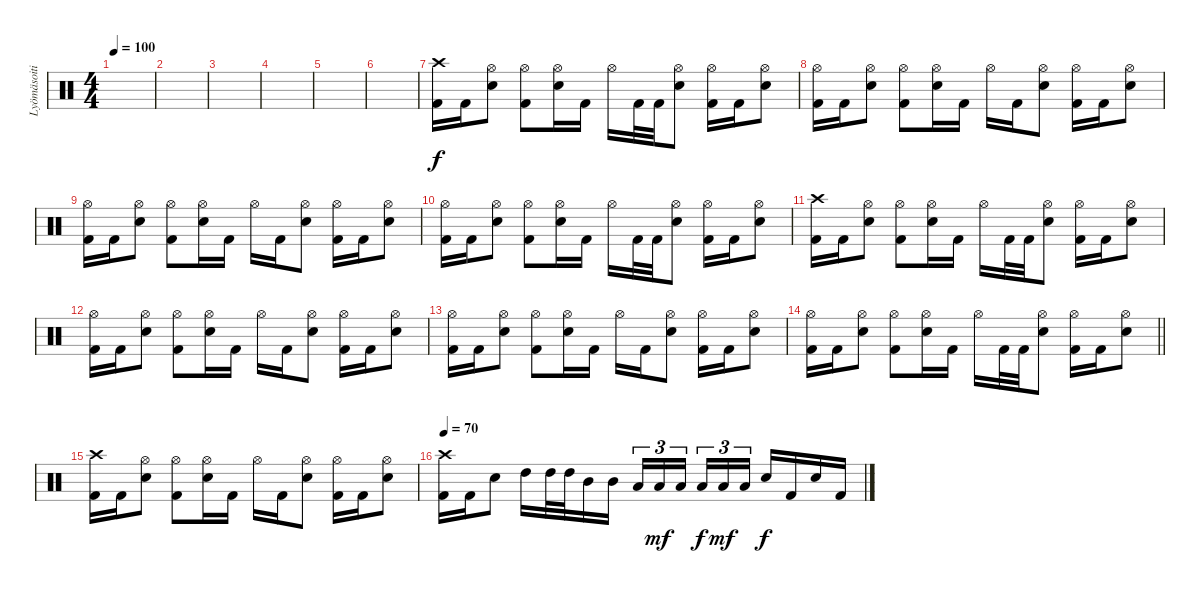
\track ("Lyömäsoitin" "Lyömäsoiti") {instrument percussion}
\staff {score}
\articulation defaults
\ts (4 4)
\tempo 100
\clef neutral
\ks c
|
|
|
|
|
|
("Crash high (hit)" "Kick (hit) 2").16 "Kick (hit) 2".16 ("Hi-Hat (open)" "Snare (hit) 2").8 ("Hi-Hat (open)" "Kick (hit) 2").8 ("Hi-Hat (open)" "Snare (hit) 2").16 "Kick (hit) 2".16 "Hi-Hat (open)".16 "Kick (hit) 2".32 "Kick (hit) 2".32 ("Hi-Hat (open)" "Snare (hit) 2").8 ("Hi-Hat (open)" "Kick (hit) 2").16 "Kick (hit) 2".16 ("Hi-Hat (open)" "Snare (hit) 2").8 |
("Hi-Hat (open)" "Kick (hit) 2").16 "Kick (hit) 2".16 ("Hi-Hat (open)" "Snare (hit) 2").8 ("Hi-Hat (open)" "Kick (hit) 2").8 ("Hi-Hat (open)" "Snare (hit) 2").16 "Kick (hit) 2".16 "Hi-Hat (open)".16 "Kick (hit) 2".16 ("Hi-Hat (open)" "Snare (hit) 2").8 ("Hi-Hat (open)" "Kick (hit) 2").16 "Kick (hit) 2".16 ("Hi-Hat (open)" "Snare (hit) 2").8 |
("Hi-Hat (open)" "Kick (hit) 2").16 "Kick (hit) 2".16 ("Hi-Hat (open)" "Snare (hit) 2").8 ("Hi-Hat (open)" "Kick (hit) 2").8 ("Hi-Hat (open)" "Snare (hit) 2").16 "Kick (hit) 2".16 "Hi-Hat (open)".16 "Kick (hit) 2".16 ("Hi-Hat (open)" "Snare (hit) 2").8 ("Hi-Hat (open)" "Kick (hit) 2").16 "Kick (hit) 2".16 ("Hi-Hat (open)" "Snare (hit) 2").8 |
("Hi-Hat (open)" "Kick (hit) 2").16 "Kick (hit) 2".16 ("Hi-Hat (open)" "Snare (hit) 2").8 ("Hi-Hat (open)" "Kick (hit) 2").8 ("Hi-Hat (open)" "Snare (hit) 2").16 "Kick (hit) 2".16 "Hi-Hat (open)".16 "Kick (hit) 2".32 "Kick (hit) 2".32 ("Hi-Hat (open)" "Snare (hit) 2").8 ("Hi-Hat (open)" "Kick (hit) 2").16 "Kick (hit) 2".16 ("Hi-Hat (open)" "Snare (hit) 2").8 |
("Crash high (hit)" "Kick (hit) 2").16 "Kick (hit) 2".16 ("Hi-Hat (open)" "Snare (hit) 2").8 ("Hi-Hat (open)" "Kick (hit) 2").8 ("Hi-Hat (open)" "Snare (hit) 2").16 "Kick (hit) 2".16 "Hi-Hat (open)".16 "Kick (hit) 2".32 "Kick (hit) 2".32 ("Hi-Hat (open)" "Snare (hit) 2").8 ("Hi-Hat (open)" "Kick (hit) 2").16 "Kick (hit) 2".16 ("Hi-Hat (open)" "Snare (hit) 2").8 |
("Hi-Hat (open)" "Kick (hit) 2").16 "Kick (hit) 2".16 ("Hi-Hat (open)" "Snare (hit) 2").8 ("Hi-Hat (open)" "Kick (hit) 2").8 ("Hi-Hat (open)" "Snare (hit) 2").16 "Kick (hit) 2".16 "Hi-Hat (open)".16 "Kick (hit) 2".16 ("Hi-Hat (open)" "Snare (hit) 2").8 ("Hi-Hat (open)" "Kick (hit) 2").16 "Kick (hit) 2".16 ("Hi-Hat (open)" "Snare (hit) 2").8 |
("Hi-Hat (open)" "Kick (hit) 2").16 "Kick (hit) 2".16 ("Hi-Hat (open)" "Snare (hit) 2").8 ("Hi-Hat (open)" "Kick (hit) 2").8 ("Hi-Hat (open)" "Snare (hit) 2").16 "Kick (hit) 2".16 "Hi-Hat (open)".16 "Kick (hit) 2".16 ("Hi-Hat (open)" "Snare (hit) 2").8 ("Hi-Hat (open)" "Kick (hit) 2").16 "Kick (hit) 2".16 ("Hi-Hat (open)" "Snare (hit) 2").8 |
\barLineRight lightlight
("Hi-Hat (open)" "Kick (hit) 2").16 "Kick (hit) 2".16 ("Hi-Hat (open)" "Snare (hit) 2").8 ("Hi-Hat (open)" "Kick (hit) 2").8 ("Hi-Hat (open)" "Snare (hit) 2").16 "Kick (hit) 2".16 "Hi-Hat (open)".16 "Kick (hit) 2".32 "Kick (hit) 2".32 ("Hi-Hat (open)" "Snare (hit) 2").8 ("Hi-Hat (open)" "Kick (hit) 2").16 "Kick (hit) 2".16 ("Hi-Hat (open)" "Snare (hit) 2").8 |
("Crash high (hit)" "Kick (hit) 2").16 "Kick (hit) 2".16 ("Hi-Hat (open)" "Snare (hit) 2").8 ("Hi-Hat (open)" "Kick (hit) 2").8 ("Hi-Hat (open)" "Snare (hit) 2").16 "Kick (hit) 2".16 "Hi-Hat (open)".16 "Kick (hit) 2".16 ("Hi-Hat (open)" "Snare (hit) 2").8 ("Hi-Hat (open)" "Kick (hit) 2").16 "Kick (hit) 2".16 ("Hi-Hat (open)" "Snare (hit) 2").8 |
\tempo 70
("Crash high (hit)" "Kick (hit) 2").16 "Kick (hit) 2".16 "Snare (hit) 2".8 "High Tom (hit)".16 "High Tom (hit)".32 "High Tom (hit)".32 "Mid Tom (hit)".16 "Mid Tom (hit)".16 "Low Tom (hit)".16{tu (3 2)} "Low Tom (hit)".16{tu (3 2) dy mf} "Low Tom (hit)".16{tu (3 2) beam splitsecondary} "Low Tom (hit)".16{tu (3 2) dy f} "Low Tom (hit)".16{tu (3 2) dy mf} "Low Tom (hit)".16{tu (3 2)} "Snare (hit) 2".16{dy f} "Kick (hit) 2".16 "Snare (hit) 2".16 "Kick (hit) 2".16
